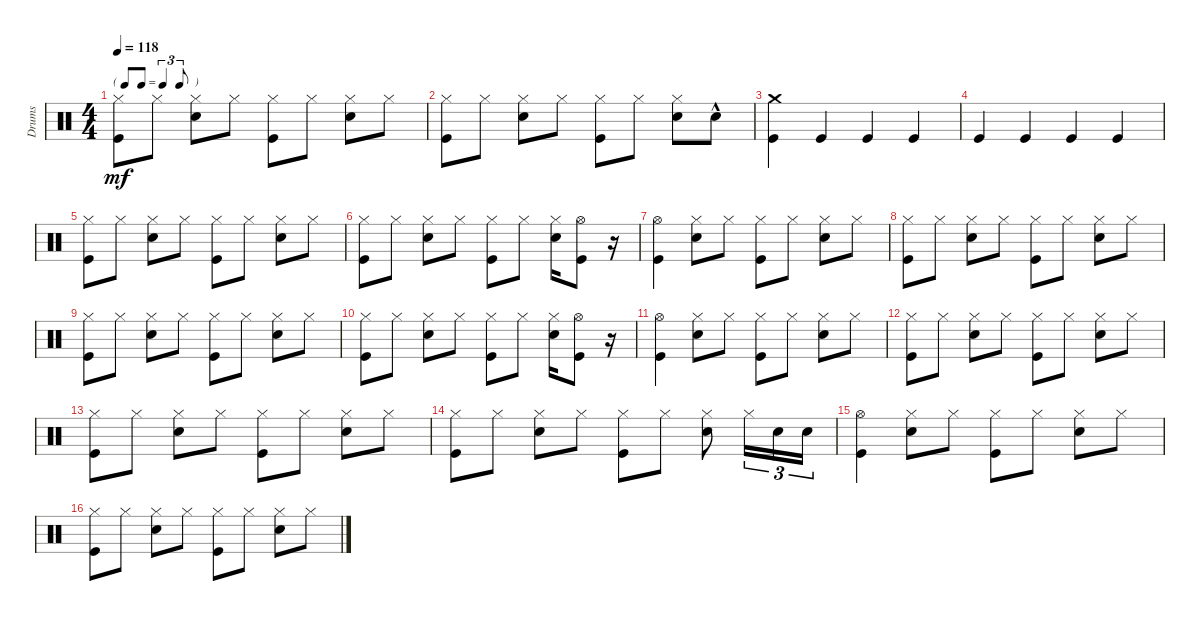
\track ("Drums" "Drums") {instrument percussion}
\staff {score}
\articulation defaults
\ts (4 4)
\tf triplet8th
\tempo 118
\clef neutral
\ks c
("Hi-Hat (closed)" "Kick (hit)").8{dy mf} "Hi-Hat (closed)".8 ("Hi-Hat (closed)" "Snare (hit) 2").8 "Hi-Hat (closed)".8 ("Hi-Hat (closed)" "Kick (hit)").8 "Hi-Hat (closed)".8 ("Hi-Hat (closed)" "Snare (hit) 2").8 "Hi-Hat (closed)".8 |
("Hi-Hat (closed)" "Kick (hit)").8 "Hi-Hat (closed)".8 ("Hi-Hat (closed)" "Snare (hit) 2").8 "Hi-Hat (closed)".8 ("Hi-Hat (closed)" "Kick (hit)").8 "Hi-Hat (closed)".8 ("Hi-Hat (closed)" "Snare (hit) 2").8 "Snare (hit) 2"{hac}.8 |
("Crash medium (hit)" "Kick (hit)").4 "Kick (hit)".4 "Kick (hit)".4 "Kick (hit)".4 |
"Kick (hit)".4 "Kick (hit)".4 "Kick (hit)".4 "Kick (hit)".4 |
("Hi-Hat (closed)" "Kick (hit)").8 "Hi-Hat (closed)".8 ("Hi-Hat (closed)" "Snare (hit) 2").8 "Hi-Hat (closed)".8 ("Hi-Hat (closed)" "Kick (hit)").8 "Hi-Hat (closed)".8 ("Hi-Hat (closed)" "Snare (hit) 2").8 "Hi-Hat (closed)".8 |
("Hi-Hat (closed)" "Kick (hit)").8 "Hi-Hat (closed)".8 ("Hi-Hat (closed)" "Snare (hit) 2").8 "Hi-Hat (closed)".8 ("Hi-Hat (closed)" "Kick (hit)").8 "Hi-Hat (closed)".8 ("Hi-Hat (closed)" "Snare (hit) 2").16 ("Kick (hit)" "Hi-Hat (open)").8 r.16 |
("Kick (hit)" "Hi-Hat (open)").4 ("Hi-Hat (closed)" "Snare (hit) 2").8 "Hi-Hat (closed)".8 ("Hi-Hat (closed)" "Kick (hit)").8 "Hi-Hat (closed)".8 ("Hi-Hat (closed)" "Snare (hit) 2").8 "Hi-Hat (closed)".8 |
("Hi-Hat (closed)" "Kick (hit)").8 "Hi-Hat (closed)".8 ("Hi-Hat (closed)" "Snare (hit) 2").8 "Hi-Hat (closed)".8 ("Hi-Hat (closed)" "Kick (hit)").8 "Hi-Hat (closed)".8 ("Hi-Hat (closed)" "Snare (hit) 2").8 "Hi-Hat (closed)".8 |
("Hi-Hat (closed)" "Kick (hit)").8 "Hi-Hat (closed)".8 ("Hi-Hat (closed)" "Snare (hit) 2").8 "Hi-Hat (closed)".8 ("Hi-Hat (closed)" "Kick (hit)").8 "Hi-Hat (closed)".8 ("Hi-Hat (closed)" "Snare (hit) 2").8 "Hi-Hat (closed)".8 |
("Hi-Hat (closed)" "Kick (hit)").8 "Hi-Hat (closed)".8 ("Hi-Hat (closed)" "Snare (hit) 2").8 "Hi-Hat (closed)".8 ("Hi-Hat (closed)" "Kick (hit)").8 "Hi-Hat (closed)".8 ("Hi-Hat (closed)" "Snare (hit) 2").16 ("Hi-Hat (open)" "Kick (hit)").8 r.16 |
("Hi-Hat (open)" "Kick (hit)").4 ("Snare (hit) 2" "Hi-Hat (closed)").8 "Hi-Hat (closed)".8 ("Hi-Hat (closed)" "Kick (hit)").8 "Hi-Hat (closed)".8 ("Hi-Hat (closed)" "Snare (hit) 2").8 "Hi-Hat (closed)".8 |
("Hi-Hat (closed)" "Kick (hit)").8 "Hi-Hat (closed)".8 ("Hi-Hat (closed)" "Snare (hit) 2").8 "Hi-Hat (closed)".8 ("Hi-Hat (closed)" "Kick (hit)").8 "Hi-Hat (closed)".8 ("Hi-Hat (closed)" "Snare (hit) 2").8 "Hi-Hat (closed)".8 |
("Hi-Hat (closed)" "Kick (hit)").8 "Hi-Hat (closed)".8 ("Hi-Hat (closed)" "Snare (hit) 2").8 "Hi-Hat (closed)".8 ("Hi-Hat (closed)" "Kick (hit)").8 "Hi-Hat (closed)".8 ("Hi-Hat (closed)" "Snare (hit) 2").8 "Hi-Hat (closed)".8 |
("Hi-Hat (closed)" "Kick (hit)").8 "Hi-Hat (closed)".8 ("Hi-Hat (closed)" "Snare (hit) 2").8 "Hi-Hat (closed)".8 ("Hi-Hat (closed)" "Kick (hit)").8 "Hi-Hat (closed)".8 ("Hi-Hat (closed)" "Snare (hit) 2").8 "Hi-Hat (closed)".16{tu (3 2)} "Snare (hit) 2".16{tu (3 2)} "Snare (hit) 2".16{tu (3 2)} |
("Kick (hit)" "Hi-Hat (open)").4 ("Hi-Hat (closed)" "Snare (hit) 2").8 "Hi-Hat (closed)".8 ("Hi-Hat (closed)" "Kick (hit)").8 "Hi-Hat (closed)".8 ("Hi-Hat (closed)" "Snare (hit) 2").8 "Hi-Hat (closed)".8 |
("Hi-Hat (closed)" "Kick (hit)").8 "Hi-Hat (closed)".8 ("Hi-Hat (closed)" "Snare (hit) 2").8 "Hi-Hat (closed)".8 ("Hi-Hat (closed)" "Kick (hit)").8 "Hi-Hat (closed)".8 ("Hi-Hat (closed)" "Snare (hit) 2").8 "Hi-Hat (closed)".8
